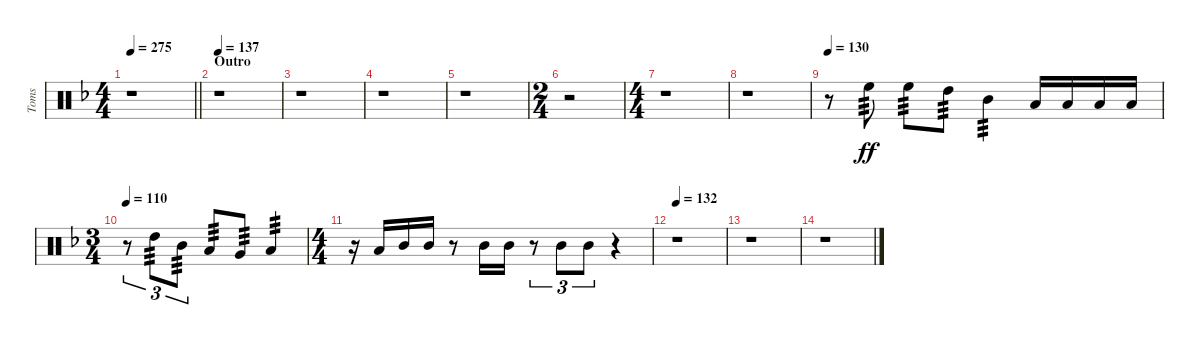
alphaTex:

\track ("Toms" "Toms") {instrument percussion}
\staff {score}
\articulation defaults
\ts (4 4)
\tempo 275
\clef neutral
\barLineRight lightlight
\ks dminor
r.1{dy ff} |
\section ("" "Outro")
\tempo 137
r.1 |
r.1 |
r.1 |
r.1 |
\ts (2 4)
r.2 |
\ts (4 4)
r.1 |
r.1 |
\tempo 130
r.8{volume 8 balance 13} "High Floor Tom (hit)".8{tp 3} "High Floor Tom (hit)".8{tp 3} "High Tom (hit)".8{tp 3 balance 12} "Mid Tom (hit)".4{tp 3 balance 10} "Low Tom (hit)".16{volume 11 balance 8} "Low Tom (hit)".16 "Low Tom (hit)".16 "Low Tom (hit)".16 |
\ts (3 4)
\tempo 110
r.8{tu (3 2)} "High Tom (hit)".8{tu (3 2) tp 3 balance 12} "Mid Tom (hit)".8{tu (3 2) tp 3 balance 10} "Low Tom (hit)".8{tp 3 balance 8} "Very Low Tom (hit)".8{tp 3 balance 6} "Low Floor Tom (hit)".4{tp 3 balance 4} |
\ts (4 4)
r.16 "Low Tom (hit)".16{balance 8} "Mid Tom (hit)".16{balance 10} "Mid Tom (hit)".16 r.8 "Mid Tom (hit)".16 "Mid Tom (hit)".16 r.8{tu (3 2)} "Mid Tom (hit)".8{tu (3 2)} "Mid Tom (hit)".8{tu (3 2)} r.4 |
\tempo 132
r.1 |
r.1 |
r.1
